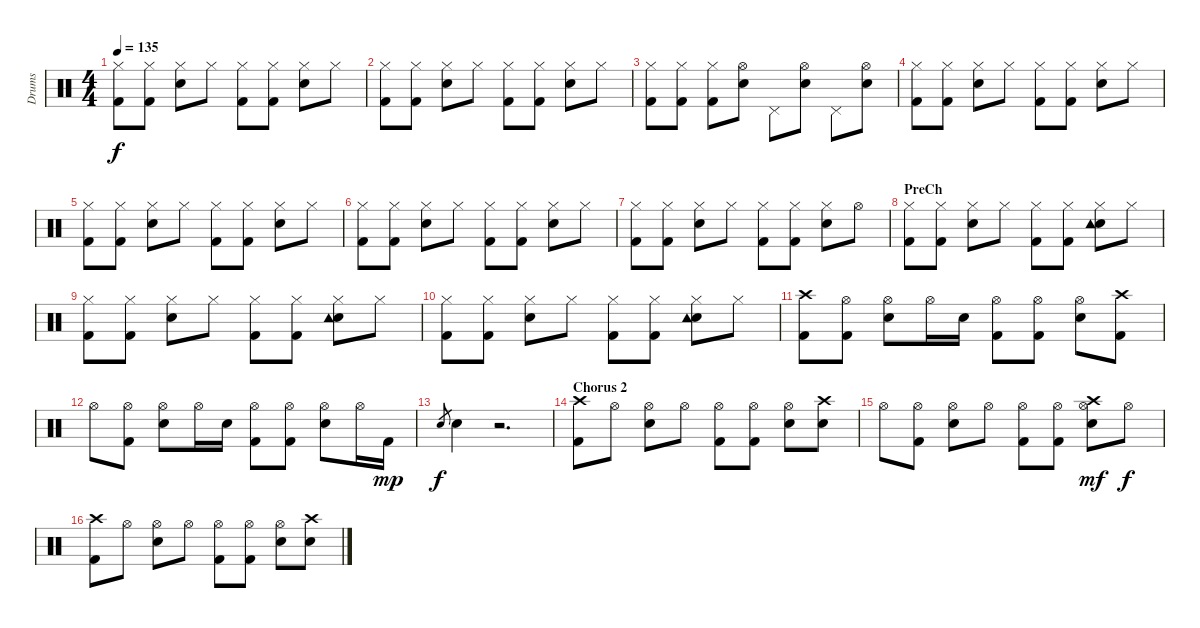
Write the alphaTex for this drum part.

\track ("Drums" "Drums") {instrument percussion}
\staff {score}
\articulation defaults
\ts (4 4)
\tempo 135
\clef neutral
\ks c
("Hi-Hat (closed)" "Kick (hit) 2").8{dy f} ("Hi-Hat (closed)" "Kick (hit) 2").8 ("Hi-Hat (closed)" "Snare (hit) 2").8 "Hi-Hat (closed)".8 ("Hi-Hat (closed)" "Kick (hit) 2").8 ("Hi-Hat (closed)" "Kick (hit) 2").8 ("Hi-Hat (closed)" "Snare (hit) 2").8 "Hi-Hat (closed)".8 |
("Hi-Hat (closed)" "Kick (hit) 2").8 ("Hi-Hat (closed)" "Kick (hit) 2").8 ("Hi-Hat (closed)" "Snare (hit) 2").8 "Hi-Hat (closed)".8 ("Hi-Hat (closed)" "Kick (hit) 2").8 ("Hi-Hat (closed)" "Kick (hit) 2").8 ("Hi-Hat (closed)" "Snare (hit) 2").8 "Hi-Hat (closed)".8 |
("Hi-Hat (closed)" "Kick (hit) 2").8 ("Hi-Hat (closed)" "Kick (hit) 2").8 ("Hi-Hat (closed)" "Kick (hit) 2").8 ("Hi-Hat (open)" "Snare (hit) 2").8 "Pedal Hi-Hat (hit)".8 ("Hi-Hat (open)" "Snare (hit) 2").8 "Pedal Hi-Hat (hit)".8 ("Hi-Hat (open)" "Snare (hit) 2").8 |
("Hi-Hat (closed)" "Kick (hit) 2").8 ("Hi-Hat (closed)" "Kick (hit) 2").8 ("Hi-Hat (closed)" "Snare (hit) 2").8 "Hi-Hat (closed)".8 ("Hi-Hat (closed)" "Kick (hit) 2").8 ("Hi-Hat (closed)" "Kick (hit) 2").8 ("Hi-Hat (closed)" "Snare (hit) 2").8 "Hi-Hat (closed)".8 |
("Hi-Hat (closed)" "Kick (hit) 2").8 ("Hi-Hat (closed)" "Kick (hit) 2").8 ("Hi-Hat (closed)" "Snare (hit) 2").8 "Hi-Hat (closed)".8 ("Hi-Hat (closed)" "Kick (hit) 2").8 ("Hi-Hat (closed)" "Kick (hit) 2").8 ("Hi-Hat (closed)" "Snare (hit) 2").8 "Hi-Hat (closed)".8 |
("Hi-Hat (closed)" "Kick (hit) 2").8 ("Hi-Hat (closed)" "Kick (hit) 2").8 ("Hi-Hat (closed)" "Snare (hit) 2").8 "Hi-Hat (closed)".8 ("Hi-Hat (closed)" "Kick (hit) 2").8 ("Hi-Hat (closed)" "Kick (hit) 2").8 ("Hi-Hat (closed)" "Snare (hit) 2").8 "Hi-Hat (closed)".8 |
("Hi-Hat (closed)" "Kick (hit) 2").8 ("Hi-Hat (closed)" "Kick (hit) 2").8 ("Hi-Hat (closed)" "Snare (hit) 2").8 "Hi-Hat (closed)".8 ("Hi-Hat (closed)" "Kick (hit) 2").8 ("Hi-Hat (closed)" "Kick (hit) 2").8 ("Hi-Hat (closed)" "Snare (hit) 2").8 "Hi-Hat (open)".8 |
\section ("" "PreCh")
("Hi-Hat (closed)" "Kick (hit) 2").8 ("Hi-Hat (closed)" "Kick (hit) 2").8 ("Hi-Hat (closed)" "Snare (hit) 2").8 "Hi-Hat (closed)".8 ("Hi-Hat (closed)" "Kick (hit) 2").8 ("Hi-Hat (closed)" "Kick (hit) 2").8 ("Hi-Hat (closed)" "Snare (hit) 2" "Tambourine (hit)").8 "Hi-Hat (closed)".8 |
("Hi-Hat (closed)" "Kick (hit) 2").8 ("Hi-Hat (closed)" "Kick (hit) 2").8 ("Hi-Hat (closed)" "Snare (hit) 2").8 "Hi-Hat (closed)".8 ("Hi-Hat (closed)" "Kick (hit) 2").8 ("Hi-Hat (closed)" "Kick (hit) 2").8 ("Hi-Hat (closed)" "Snare (hit) 2" "Tambourine (hit)").8 "Hi-Hat (closed)".8 |
("Hi-Hat (closed)" "Kick (hit) 2").8 ("Hi-Hat (closed)" "Kick (hit) 2").8 ("Hi-Hat (closed)" "Snare (hit) 2").8 "Hi-Hat (closed)".8 ("Hi-Hat (closed)" "Kick (hit) 2").8 ("Hi-Hat (closed)" "Kick (hit) 2").8 ("Hi-Hat (closed)" "Snare (hit) 2" "Tambourine (hit)").8 "Hi-Hat (closed)".8 |
("Crash high (hit)" "Kick (hit) 2").8 ("Hi-Hat (open)" "Kick (hit) 2").8 ("Hi-Hat (open)" "Snare (hit) 2").8 "Hi-Hat (open)".16 "Snare (hit) 2".16 ("Hi-Hat (open)" "Kick (hit) 2").8 ("Hi-Hat (open)" "Kick (hit) 2").8 ("Hi-Hat (open)" "Snare (hit) 2").8 ("Crash high (hit)" "Kick (hit) 2").8 |
"Hi-Hat (open)".8 ("Hi-Hat (open)" "Kick (hit) 2").8 ("Hi-Hat (open)" "Snare (hit) 2").8 "Hi-Hat (open)".16 "Snare (hit) 2".16 ("Hi-Hat (open)" "Kick (hit) 2").8 ("Hi-Hat (open)" "Kick (hit) 2").8 ("Hi-Hat (open)" "Snare (hit) 2").8 "Hi-Hat (open)".16 "Kick (hit) 2".16{dy mp} |
"Snare (hit) 2".8{gr dy f} "Snare (hit) 2".4 r.2{d} |
\section ("" "Chorus 2")
("Crash high (hit)" "Kick (hit) 2").8 "Hi-Hat (open)".8 ("Hi-Hat (open)" "Snare (hit) 2").8 "Hi-Hat (open)".8 ("Hi-Hat (open)" "Kick (hit) 2").8 ("Hi-Hat (open)" "Kick (hit) 2").8 ("Hi-Hat (open)" "Snare (hit) 2").8 ("Crash high (hit)" "Snare (hit) 2").8 |
"Hi-Hat (open)".8 ("Hi-Hat (open)" "Kick (hit) 2").8 ("Hi-Hat (open)" "Snare (hit) 2").8 "Hi-Hat (open)".8 ("Hi-Hat (open)" "Kick (hit) 2").8 ("Hi-Hat (open)" "Kick (hit) 2").8 ("Crash high (hit)" "Hi-Hat (open)" "Snare (hit) 2").8{dy mf} "Hi-Hat (open)".8{dy f} |
("Crash high (hit)" "Kick (hit) 2").8 "Hi-Hat (open)".8 ("Hi-Hat (open)" "Snare (hit) 2").8 "Hi-Hat (open)".8 ("Hi-Hat (open)" "Kick (hit) 2").8 ("Hi-Hat (open)" "Kick (hit) 2").8 ("Hi-Hat (open)" "Snare (hit) 2").8 ("Crash high (hit)" "Snare (hit) 2").8
